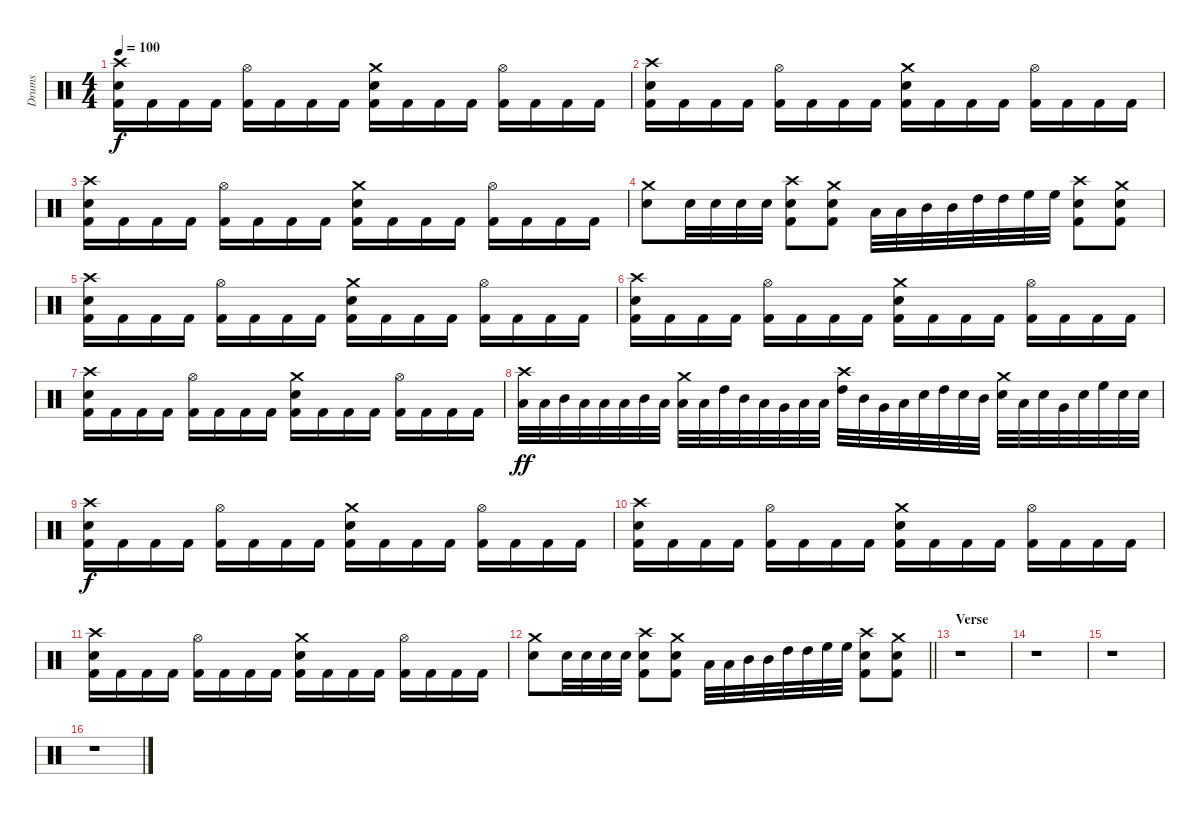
\track ("Drums" "Drums") {instrument percussion}
\staff {score}
\articulation defaults
\ts (4 4)
\tempo 100
\clef neutral
\ks c
("Crash high (hit)" "Snare (hit) 2" "Kick (hit) 2").16{dy f} "Kick (hit) 2".16 "Kick (hit) 2".16 "Kick (hit) 2".16 ("Hi-Hat (open)" "Kick (hit) 2").16 "Kick (hit) 2".16 "Kick (hit) 2".16 "Kick (hit) 2".16 ("Crash medium (hit)" "Snare (hit) 2" "Kick (hit) 2").16 "Kick (hit) 2".16 "Kick (hit) 2".16 "Kick (hit) 2".16 ("Hi-Hat (open)" "Kick (hit) 2").16 "Kick (hit) 2".16 "Kick (hit) 2".16 "Kick (hit) 2".16 |
("Crash high (hit)" "Snare (hit) 2" "Kick (hit) 2").16 "Kick (hit) 2".16 "Kick (hit) 2".16 "Kick (hit) 2".16 ("Hi-Hat (open)" "Kick (hit) 2").16 "Kick (hit) 2".16 "Kick (hit) 2".16 "Kick (hit) 2".16 ("Crash medium (hit)" "Snare (hit) 2" "Kick (hit) 2").16 "Kick (hit) 2".16 "Kick (hit) 2".16 "Kick (hit) 2".16 ("Hi-Hat (open)" "Kick (hit) 2").16 "Kick (hit) 2".16 "Kick (hit) 2".16 "Kick (hit) 2".16 |
("Crash high (hit)" "Snare (hit) 2" "Kick (hit) 2").16 "Kick (hit) 2".16 "Kick (hit) 2".16 "Kick (hit) 2".16 ("Hi-Hat (open)" "Kick (hit) 2").16 "Kick (hit) 2".16 "Kick (hit) 2".16 "Kick (hit) 2".16 ("Crash medium (hit)" "Snare (hit) 2" "Kick (hit) 2").16 "Kick (hit) 2".16 "Kick (hit) 2".16 "Kick (hit) 2".16 ("Hi-Hat (open)" "Kick (hit) 2").16 "Kick (hit) 2".16 "Kick (hit) 2".16 "Kick (hit) 2".16 |
("Crash medium (hit)" "Snare (hit) 2").8 "Snare (hit) 2".32 "Snare (hit) 2".32 "Snare (hit) 2".32 "Snare (hit) 2".32 ("Crash high (hit)" "Snare (hit) 2" "Kick (hit) 2").8 ("Crash medium (hit)" "Snare (hit) 2" "Kick (hit) 2").8 "Low Tom (hit)".32 "Low Tom (hit)".32 "Mid Tom (hit)".32 "Mid Tom (hit)".32 "High Tom (hit)".32 "High Tom (hit)".32 "High Floor Tom (hit)".32 "High Floor Tom (hit)".32 ("Crash high (hit)" "Snare (hit) 2" "Kick (hit) 2").8 ("Crash medium (hit)" "Snare (hit) 2" "Kick (hit) 2").8 |
("Crash high (hit)" "Snare (hit) 2" "Kick (hit) 2").16 "Kick (hit) 2".16 "Kick (hit) 2".16 "Kick (hit) 2".16 ("Hi-Hat (open)" "Kick (hit) 2").16 "Kick (hit) 2".16 "Kick (hit) 2".16 "Kick (hit) 2".16 ("Crash medium (hit)" "Snare (hit) 2" "Kick (hit) 2").16 "Kick (hit) 2".16 "Kick (hit) 2".16 "Kick (hit) 2".16 ("Hi-Hat (open)" "Kick (hit) 2").16 "Kick (hit) 2".16 "Kick (hit) 2".16 "Kick (hit) 2".16 |
("Crash high (hit)" "Snare (hit) 2" "Kick (hit) 2").16 "Kick (hit) 2".16 "Kick (hit) 2".16 "Kick (hit) 2".16 ("Hi-Hat (open)" "Kick (hit) 2").16 "Kick (hit) 2".16 "Kick (hit) 2".16 "Kick (hit) 2".16 ("Crash medium (hit)" "Snare (hit) 2" "Kick (hit) 2").16 "Kick (hit) 2".16 "Kick (hit) 2".16 "Kick (hit) 2".16 ("Hi-Hat (open)" "Kick (hit) 2").16 "Kick (hit) 2".16 "Kick (hit) 2".16 "Kick (hit) 2".16 |
("Crash high (hit)" "Snare (hit) 2" "Kick (hit) 2").16 "Kick (hit) 2".16 "Kick (hit) 2".16 "Kick (hit) 2".16 ("Hi-Hat (open)" "Kick (hit) 2").16 "Kick (hit) 2".16 "Kick (hit) 2".16 "Kick (hit) 2".16 ("Crash medium (hit)" "Snare (hit) 2" "Kick (hit) 2").16 "Kick (hit) 2".16 "Kick (hit) 2".16 "Kick (hit) 2".16 ("Hi-Hat (open)" "Kick (hit) 2").16 "Kick (hit) 2".16 "Kick (hit) 2".16 "Kick (hit) 2".16 |
("Crash high (hit)" "Low Tom (hit)").32{dy ff} "Low Tom (hit)".32 "Mid Tom (hit)".32 "Low Tom (hit)".32 "Low Tom (hit)".32 "Low Tom (hit)".32 "Mid Tom (hit)".32 "Low Tom (hit)".32 ("Crash medium (hit)" "Low Tom (hit)").32 "Low Tom (hit)".32 "High Tom (hit)".32 "Mid Tom (hit)".32 "Low Tom (hit)".32 "Very Low Tom (hit)".32 "Low Tom (hit)".32 "Low Tom (hit)".32 ("Crash high (hit)" "High Tom (hit)").32 "Mid Tom (hit)".32 "Very Low Tom (hit)".32 "Low Tom (hit)".32 "Snare (hit) 2".32 "High Tom (hit)".32 "Snare (hit) 2".32 "Mid Tom (hit)".32 ("Crash medium (hit)" "Snare (hit) 2").32 "Low Tom (hit)".32 "Snare (hit) 2".32 "Very Low Tom (hit)".32 "Snare (hit) 2".32 "High Floor Tom (hit)".32 "Snare (hit) 2".32 "Snare (hit) 2".32 |
("Crash high (hit)" "Snare (hit) 2" "Kick (hit) 2").16{dy f} "Kick (hit) 2".16 "Kick (hit) 2".16 "Kick (hit) 2".16 ("Hi-Hat (open)" "Kick (hit) 2").16 "Kick (hit) 2".16 "Kick (hit) 2".16 "Kick (hit) 2".16 ("Crash medium (hit)" "Snare (hit) 2" "Kick (hit) 2").16 "Kick (hit) 2".16 "Kick (hit) 2".16 "Kick (hit) 2".16 ("Hi-Hat (open)" "Kick (hit) 2").16 "Kick (hit) 2".16 "Kick (hit) 2".16 "Kick (hit) 2".16 |
("Crash high (hit)" "Snare (hit) 2" "Kick (hit) 2").16 "Kick (hit) 2".16 "Kick (hit) 2".16 "Kick (hit) 2".16 ("Hi-Hat (open)" "Kick (hit) 2").16 "Kick (hit) 2".16 "Kick (hit) 2".16 "Kick (hit) 2".16 ("Crash medium (hit)" "Snare (hit) 2" "Kick (hit) 2").16 "Kick (hit) 2".16 "Kick (hit) 2".16 "Kick (hit) 2".16 ("Hi-Hat (open)" "Kick (hit) 2").16 "Kick (hit) 2".16 "Kick (hit) 2".16 "Kick (hit) 2".16 |
("Crash high (hit)" "Snare (hit) 2" "Kick (hit) 2").16 "Kick (hit) 2".16 "Kick (hit) 2".16 "Kick (hit) 2".16 ("Hi-Hat (open)" "Kick (hit) 2").16 "Kick (hit) 2".16 "Kick (hit) 2".16 "Kick (hit) 2".16 ("Crash medium (hit)" "Snare (hit) 2" "Kick (hit) 2").16 "Kick (hit) 2".16 "Kick (hit) 2".16 "Kick (hit) 2".16 ("Hi-Hat (open)" "Kick (hit) 2").16 "Kick (hit) 2".16 "Kick (hit) 2".16 "Kick (hit) 2".16 |
\barLineRight lightlight
("Crash medium (hit)" "Snare (hit) 2").8 "Snare (hit) 2".32 "Snare (hit) 2".32 "Snare (hit) 2".32 "Snare (hit) 2".32 ("Crash high (hit)" "Snare (hit) 2" "Kick (hit) 2").8 ("Crash medium (hit)" "Snare (hit) 2" "Kick (hit) 2").8 "Low Tom (hit)".32 "Low Tom (hit)".32 "Mid Tom (hit)".32 "Mid Tom (hit)".32 "High Tom (hit)".32 "High Tom (hit)".32 "High Floor Tom (hit)".32 "High Floor Tom (hit)".32 ("Crash high (hit)" "Snare (hit) 2" "Kick (hit) 2").8 ("Crash medium (hit)" "Snare (hit) 2" "Kick (hit) 2").8 |
\section ("" "Verse")
r.1 |
r.1 |
r.1 |
r.1
